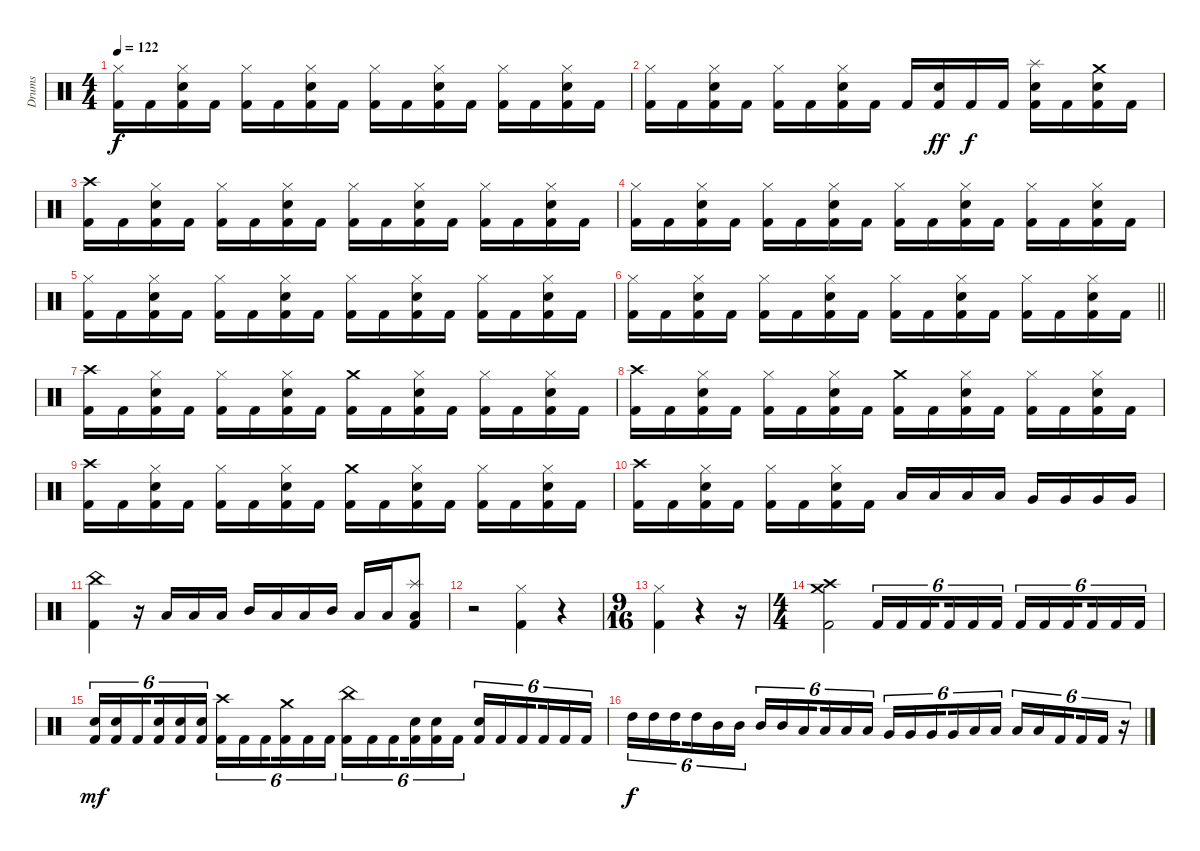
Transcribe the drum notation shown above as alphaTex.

\track ("Drums" "Drums") {instrument percussion}
\staff {score}
\articulation defaults
\ts (4 4)
\tempo 122
\clef neutral
\ks c
("Hi-Hat (closed)" "Kick (hit) 2").16{dy f} "Kick (hit) 2".16 ("Hi-Hat (closed)" "Snare (hit) 2" "Kick (hit) 2").16 "Kick (hit) 2".16 ("Hi-Hat (closed)" "Kick (hit) 2").16 "Kick (hit) 2".16 ("Hi-Hat (closed)" "Snare (hit) 2" "Kick (hit) 2").16 "Kick (hit) 2".16 ("Hi-Hat (closed)" "Kick (hit) 2").16 "Kick (hit) 2".16 ("Hi-Hat (closed)" "Snare (hit) 2" "Kick (hit) 2").16 "Kick (hit) 2".16 ("Hi-Hat (closed)" "Kick (hit) 2").16 "Kick (hit) 2".16 ("Hi-Hat (closed)" "Snare (hit) 2" "Kick (hit) 2").16 "Kick (hit) 2".16 |
("Hi-Hat (closed)" "Kick (hit) 2").16 "Kick (hit) 2".16 ("Hi-Hat (closed)" "Snare (hit) 2" "Kick (hit) 2").16 "Kick (hit) 2".16 ("Hi-Hat (closed)" "Kick (hit) 2").16 "Kick (hit) 2".16 ("Hi-Hat (closed)" "Snare (hit) 2" "Kick (hit) 2").16 "Kick (hit) 2".16 "Kick (hit) 2".16 ("Snare (hit) 2" "Kick (hit) 2").16{dy ff} "Kick (hit) 2".16{dy f} "Kick (hit) 2".16 ("Splash (hit)" "Snare (hit) 2" "Kick (hit) 2").16 "Kick (hit) 2".16 ("Crash medium (hit)" "Snare (hit) 2" "Kick (hit) 2").16 "Kick (hit) 2".16 |
("Crash high (hit)" "Kick (hit) 2").16 "Kick (hit) 2".16 ("Hi-Hat (closed)" "Snare (hit) 2" "Kick (hit) 2").16 "Kick (hit) 2".16 ("Hi-Hat (closed)" "Kick (hit) 2").16 "Kick (hit) 2".16 ("Hi-Hat (closed)" "Snare (hit) 2" "Kick (hit) 2").16 "Kick (hit) 2".16 ("Hi-Hat (closed)" "Kick (hit) 2").16 "Kick (hit) 2".16 ("Hi-Hat (closed)" "Snare (hit) 2" "Kick (hit) 2").16 "Kick (hit) 2".16 ("Hi-Hat (closed)" "Kick (hit) 2").16 "Kick (hit) 2".16 ("Hi-Hat (closed)" "Snare (hit) 2" "Kick (hit) 2").16 "Kick (hit) 2".16 |
("Hi-Hat (closed)" "Kick (hit) 2").16 "Kick (hit) 2".16 ("Hi-Hat (closed)" "Snare (hit) 2" "Kick (hit) 2").16 "Kick (hit) 2".16 ("Hi-Hat (closed)" "Kick (hit) 2").16 "Kick (hit) 2".16 ("Hi-Hat (closed)" "Snare (hit) 2" "Kick (hit) 2").16 "Kick (hit) 2".16 ("Hi-Hat (closed)" "Kick (hit) 2").16 "Kick (hit) 2".16 ("Hi-Hat (closed)" "Snare (hit) 2" "Kick (hit) 2").16 "Kick (hit) 2".16 ("Hi-Hat (closed)" "Kick (hit) 2").16 "Kick (hit) 2".16 ("Hi-Hat (closed)" "Snare (hit) 2" "Kick (hit) 2").16 "Kick (hit) 2".16 |
("Hi-Hat (closed)" "Kick (hit) 2").16 "Kick (hit) 2".16 ("Hi-Hat (closed)" "Snare (hit) 2" "Kick (hit) 2").16 "Kick (hit) 2".16 ("Hi-Hat (closed)" "Kick (hit) 2").16 "Kick (hit) 2".16 ("Hi-Hat (closed)" "Snare (hit) 2" "Kick (hit) 2").16 "Kick (hit) 2".16 ("Hi-Hat (closed)" "Kick (hit) 2").16 "Kick (hit) 2".16 ("Hi-Hat (closed)" "Snare (hit) 2" "Kick (hit) 2").16 "Kick (hit) 2".16 ("Hi-Hat (closed)" "Kick (hit) 2").16 "Kick (hit) 2".16 ("Hi-Hat (closed)" "Snare (hit) 2" "Kick (hit) 2").16 "Kick (hit) 2".16 |
\barLineRight lightlight
("Hi-Hat (closed)" "Kick (hit) 2").16 "Kick (hit) 2".16 ("Hi-Hat (closed)" "Snare (hit) 2" "Kick (hit) 2").16 "Kick (hit) 2".16 ("Hi-Hat (closed)" "Kick (hit) 2").16 "Kick (hit) 2".16 ("Hi-Hat (closed)" "Snare (hit) 2" "Kick (hit) 2").16 "Kick (hit) 2".16 ("Hi-Hat (closed)" "Kick (hit) 2").16 "Kick (hit) 2".16 ("Hi-Hat (closed)" "Snare (hit) 2" "Kick (hit) 2").16 "Kick (hit) 2".16 ("Hi-Hat (closed)" "Kick (hit) 2").16 "Kick (hit) 2".16 ("Hi-Hat (closed)" "Snare (hit) 2" "Kick (hit) 2").16 "Kick (hit) 2".16 |
\section ("" "")
("Crash high (hit)" "Kick (hit) 2").16 "Kick (hit) 2".16 ("Hi-Hat (closed)" "Snare (hit) 2" "Kick (hit) 2").16 "Kick (hit) 2".16 ("Hi-Hat (closed)" "Kick (hit) 2").16 "Kick (hit) 2".16 ("Hi-Hat (closed)" "Snare (hit) 2" "Kick (hit) 2").16 "Kick (hit) 2".16 ("Crash medium (hit)" "Kick (hit) 2").16 "Kick (hit) 2".16 ("Hi-Hat (closed)" "Snare (hit) 2" "Kick (hit) 2").16 "Kick (hit) 2".16 ("Hi-Hat (closed)" "Kick (hit) 2").16 "Kick (hit) 2".16 ("Hi-Hat (closed)" "Snare (hit) 2" "Kick (hit) 2").16 "Kick (hit) 2".16 |
("Crash high (hit)" "Kick (hit) 2").16 "Kick (hit) 2".16 ("Hi-Hat (closed)" "Snare (hit) 2" "Kick (hit) 2").16 "Kick (hit) 2".16 ("Hi-Hat (closed)" "Kick (hit) 2").16 "Kick (hit) 2".16 ("Hi-Hat (closed)" "Snare (hit) 2" "Kick (hit) 2").16 "Kick (hit) 2".16 ("Crash medium (hit)" "Kick (hit) 2").16 "Kick (hit) 2".16 ("Hi-Hat (closed)" "Snare (hit) 2" "Kick (hit) 2").16 "Kick (hit) 2".16 ("Hi-Hat (closed)" "Kick (hit) 2").16 "Kick (hit) 2".16 ("Hi-Hat (closed)" "Snare (hit) 2" "Kick (hit) 2").16 "Kick (hit) 2".16 |
("Crash high (hit)" "Kick (hit) 2").16 "Kick (hit) 2".16 ("Hi-Hat (closed)" "Snare (hit) 2" "Kick (hit) 2").16 "Kick (hit) 2".16 ("Hi-Hat (closed)" "Kick (hit) 2").16 "Kick (hit) 2".16 ("Hi-Hat (closed)" "Snare (hit) 2" "Kick (hit) 2").16 "Kick (hit) 2".16 ("Crash medium (hit)" "Kick (hit) 2").16 "Kick (hit) 2".16 ("Hi-Hat (closed)" "Snare (hit) 2" "Kick (hit) 2").16 "Kick (hit) 2".16 ("Hi-Hat (closed)" "Kick (hit) 2").16 "Kick (hit) 2".16 ("Hi-Hat (closed)" "Snare (hit) 2" "Kick (hit) 2").16 "Kick (hit) 2".16 |
("Crash high (hit)" "Kick (hit) 2").16 "Kick (hit) 2".16 ("Hi-Hat (closed)" "Snare (hit) 2" "Kick (hit) 2").16 "Kick (hit) 2".16 ("Hi-Hat (closed)" "Kick (hit) 2").16 "Kick (hit) 2".16 ("Hi-Hat (closed)" "Snare (hit) 2" "Kick (hit) 2").16 "Kick (hit) 2".16 "Low Tom (hit)".16 "Low Tom (hit)".16 "Low Tom (hit)".16 "Low Tom (hit)".16 "Very Low Tom (hit)".16 "Very Low Tom (hit)".16 "Very Low Tom (hit)".16 "Very Low Tom (hit)".16 |
("China (hit)" "Kick (hit) 2").4 r.16 "Low Tom (hit)".16 "Low Tom (hit)".16 "Low Tom (hit)".16 "Mid Tom (hit)".16 "Low Tom (hit)".16 "Low Tom (hit)".16 "Mid Tom (hit)".16 "Low Tom (hit)".16 "Low Tom (hit)".16 ("Splash (hit)" "Low Tom (hit)" "Kick (hit) 2").8 |
r.2 ("Hi-Hat (closed)" "Kick (hit) 2").4 r.4 |
\ts (9 16)
("Hi-Hat (closed)" "Kick (hit) 2").4 r.4 r.16 |
\ts (4 4)
("Crash medium (hit)" "Crash high (hit)" "Kick (hit) 2").2 "Kick (hit) 2".16{tu (6 4)} "Kick (hit) 2".16{tu (6 4)} "Kick (hit) 2".16{tu (6 4) beam splitsecondary} "Kick (hit) 2".16{tu (6 4)} "Kick (hit) 2".16{tu (6 4)} "Kick (hit) 2".16{tu (6 4)} "Kick (hit) 2".16{tu (6 4)} "Kick (hit) 2".16{tu (6 4)} "Kick (hit) 2".16{tu (6 4) beam splitsecondary} "Kick (hit) 2".16{tu (6 4)} "Kick (hit) 2".16{tu (6 4)} "Kick (hit) 2".16{tu (6 4)} |
("Snare (hit) 2" "Kick (hit) 2").16{tu (6 4) dy mf} ("Snare (hit) 2" "Kick (hit) 2").16{tu (6 4)} "Kick (hit) 2".16{tu (6 4) beam splitsecondary} ("Snare (hit) 2" "Kick (hit) 2").16{tu (6 4)} ("Snare (hit) 2" "Kick (hit) 2").16{tu (6 4)} ("Snare (hit) 2" "Kick (hit) 2").16{tu (6 4)} ("Crash high (hit)" "Kick (hit) 2").16{tu (6 4)} "Kick (hit) 2".16{tu (6 4)} "Kick (hit) 2".16{tu (6 4) beam splitsecondary} ("Crash medium (hit)" "Kick (hit) 2").16{tu (6 4)} "Kick (hit) 2".16{tu (6 4)} "Kick (hit) 2".16{tu (6 4)} ("China (hit)" "Kick (hit) 2").16{tu (6 4)} "Kick (hit) 2".16{tu (6 4)} "Kick (hit) 2".16{tu (6 4) beam splitsecondary} ("Snare (hit) 2" "Kick (hit) 2").16{tu (6 4)} ("Snare (hit) 2" "Kick (hit) 2").16{tu (6 4)} "Kick (hit) 2".16{tu (6 4)} ("Snare (hit) 2" "Kick (hit) 2").16{tu (6 4)} "Kick (hit) 2".16{tu (6 4)} "Kick (hit) 2".16{tu (6 4) beam splitsecondary} "Kick (hit) 2".16{tu (6 4)} "Kick (hit) 2".16{tu (6 4)} "Kick (hit) 2".16{tu (6 4)} |
"High Tom (hit)".16{tu (6 4) dy f} "High Tom (hit)".16{tu (6 4)} "High Tom (hit)".16{tu (6 4) beam splitsecondary} "High Tom (hit)".16{tu (6 4)} "Mid Tom (hit)".16{tu (6 4)} "Mid Tom (hit)".16{tu (6 4)} "Mid Tom (hit)".16{tu (6 4)} "Mid Tom (hit)".16{tu (6 4)} "Low Tom (hit)".16{tu (6 4) beam splitsecondary} "Low Tom (hit)".16{tu (6 4)} "Low Tom (hit)".16{tu (6 4)} "Low Tom (hit)".16{tu (6 4)} "Very Low Tom (hit)".16{tu (6 4)} "Very Low Tom (hit)".16{tu (6 4)} "Very Low Tom (hit)".16{tu (6 4) beam splitsecondary} "Very Low Tom (hit)".16{tu (6 4)} "Low Floor Tom (hit)".16{tu (6 4)} "Low Floor Tom (hit)".16{tu (6 4)} "Low Floor Tom (hit)".16{tu (6 4)} "Low Floor Tom (hit)".16{tu (6 4)} "Kick (hit) 2".16{tu (6 4) beam splitsecondary} "Kick (hit) 2".16{tu (6 4)} "Kick (hit) 2".16{tu (6 4)} r.16{tu (6 4)}
